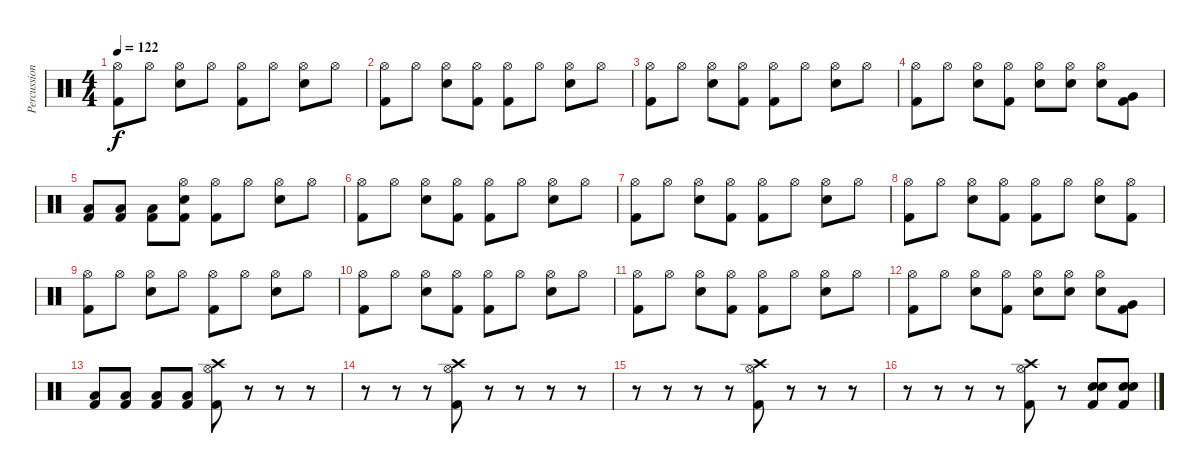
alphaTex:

\track ("Percussion" "Percussion") {instrument percussion}
\staff {score}
\articulation defaults
\ts (4 4)
\tempo 122
\clef neutral
\ks c
("Hi-Hat (open)" "Kick (hit) 2").8{dy f} "Hi-Hat (open)".8 ("Hi-Hat (open)" "Snare (hit) 2").8 "Hi-Hat (open)".8 ("Hi-Hat (open)" "Kick (hit) 2").8 "Hi-Hat (open)".8 ("Hi-Hat (open)" "Snare (hit) 2").8 "Hi-Hat (open)".8 |
("Hi-Hat (open)" "Kick (hit) 2").8 "Hi-Hat (open)".8 ("Hi-Hat (open)" "Snare (hit) 2").8 ("Hi-Hat (open)" "Kick (hit) 2").8 ("Hi-Hat (open)" "Kick (hit) 2").8 "Hi-Hat (open)".8 ("Hi-Hat (open)" "Snare (hit) 2").8 "Hi-Hat (open)".8 |
("Hi-Hat (open)" "Kick (hit) 2").8 "Hi-Hat (open)".8 ("Hi-Hat (open)" "Snare (hit) 2").8 ("Hi-Hat (open)" "Kick (hit) 2").8 ("Hi-Hat (open)" "Kick (hit) 2").8 "Hi-Hat (open)".8 ("Hi-Hat (open)" "Snare (hit) 2").8 "Hi-Hat (open)".8 |
("Hi-Hat (open)" "Kick (hit) 2").8 "Hi-Hat (open)".8 ("Hi-Hat (open)" "Snare (hit) 2").8 ("Hi-Hat (open)" "Kick (hit) 2").8 ("Hi-Hat (open)" "Snare (hit) 2").8 ("Hi-Hat (open)" "Snare (hit) 2").8 ("Hi-Hat (open)" "Snare (hit) 2").8 ("Very Low Tom (hit)" "Kick (hit) 2").8 |
("Low Tom (hit)" "Kick (hit) 2").8 ("Low Tom (hit)" "Kick (hit) 2").8 ("Low Tom (hit)" "Kick (hit) 2").8 ("Hi-Hat (open)" "Snare (hit) 2" "Kick (hit) 2").8 ("Hi-Hat (open)" "Kick (hit) 2").8 "Hi-Hat (open)".8 ("Hi-Hat (open)" "Snare (hit) 2").8 "Hi-Hat (open)".8 |
("Hi-Hat (open)" "Kick (hit) 2").8 "Hi-Hat (open)".8 ("Hi-Hat (open)" "Snare (hit) 2").8 ("Hi-Hat (open)" "Kick (hit) 2").8 ("Hi-Hat (open)" "Kick (hit) 2").8 "Hi-Hat (open)".8 ("Hi-Hat (open)" "Snare (hit) 2").8 "Hi-Hat (open)".8 |
("Hi-Hat (open)" "Kick (hit) 2").8 "Hi-Hat (open)".8 ("Hi-Hat (open)" "Snare (hit) 2").8 ("Hi-Hat (open)" "Kick (hit) 2").8 ("Hi-Hat (open)" "Kick (hit) 2").8 "Hi-Hat (open)".8 ("Hi-Hat (open)" "Snare (hit) 2").8 "Hi-Hat (open)".8 |
("Hi-Hat (open)" "Kick (hit) 2").8 "Hi-Hat (open)".8 ("Hi-Hat (open)" "Snare (hit) 2").8 ("Hi-Hat (open)" "Kick (hit) 2").8 ("Hi-Hat (open)" "Kick (hit) 2").8 "Hi-Hat (open)".8 ("Hi-Hat (open)" "Snare (hit) 2").8 ("Hi-Hat (open)" "Kick (hit) 2").8 |
("Hi-Hat (open)" "Kick (hit) 2").8 "Hi-Hat (open)".8 ("Hi-Hat (open)" "Snare (hit) 2").8 "Hi-Hat (open)".8 ("Hi-Hat (open)" "Kick (hit) 2").8 "Hi-Hat (open)".8 ("Hi-Hat (open)" "Snare (hit) 2").8 "Hi-Hat (open)".8 |
("Hi-Hat (open)" "Kick (hit) 2").8 "Hi-Hat (open)".8 ("Hi-Hat (open)" "Snare (hit) 2").8 ("Hi-Hat (open)" "Kick (hit) 2").8 ("Hi-Hat (open)" "Kick (hit) 2").8 "Hi-Hat (open)".8 ("Hi-Hat (open)" "Snare (hit) 2").8 "Hi-Hat (open)".8 |
("Hi-Hat (open)" "Kick (hit) 2").8 "Hi-Hat (open)".8 ("Hi-Hat (open)" "Snare (hit) 2").8 ("Hi-Hat (open)" "Kick (hit) 2").8 ("Hi-Hat (open)" "Kick (hit) 2").8 "Hi-Hat (open)".8 ("Hi-Hat (open)" "Snare (hit) 2").8 "Hi-Hat (open)".8 |
("Hi-Hat (open)" "Kick (hit) 2").8 "Hi-Hat (open)".8 ("Hi-Hat (open)" "Snare (hit) 2").8 ("Hi-Hat (open)" "Kick (hit) 2").8 ("Hi-Hat (open)" "Snare (hit) 2").8 ("Hi-Hat (open)" "Snare (hit) 2").8 ("Hi-Hat (open)" "Snare (hit) 2").8 ("Very Low Tom (hit)" "Kick (hit) 2").8 |
("Low Tom (hit)" "Kick (hit) 2").8 ("Low Tom (hit)" "Kick (hit) 2").8 ("Low Tom (hit)" "Kick (hit) 2").8 ("Low Floor Tom (hit)" "Kick (hit) 2").8 ("Hi-Hat (open)" "Crash high (hit)" "Kick (hit) 2").8 r.8 r.8 r.8 |
r.8 r.8 r.8 ("Hi-Hat (open)" "Crash high (hit)" "Kick (hit) 2").8 r.8 r.8 r.8 r.8 |
r.8 r.8 r.8 r.8 ("Hi-Hat (open)" "Crash high (hit)" "Kick (hit) 2").8 r.8 r.8 r.8 |
r.8 r.8 r.8 r.8 ("Hi-Hat (open)" "Crash high (hit)" "Kick (hit) 2").8 r.8 ("Snare (hit) 2" "Snare (hit) 2" "Kick (hit) 2").8 ("Snare (hit) 2" "Snare (hit) 2" "Kick (hit) 2").8
